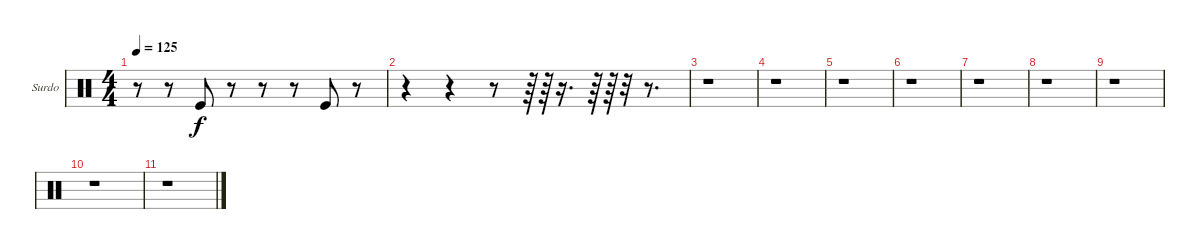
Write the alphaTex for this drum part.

\bracketExtendMode groupsimilarinstruments
\firstSystemTrackNameOrientation horizontal
\otherSystemsTrackNameOrientation horizontal
\track ("Surdo" "Surdo") {instrument percussion}
\staff {score}
\articulation defaults
\ts (4 4)
\tempo 125
\clef neutral
\ks c
r.8{dy f} r.8 "Kick (hit)".8 r.8 r.8 r.8 "Kick (hit)".8 r.8 |
r.4 r.4 r.8 r.64 r.64 r.16{d} r.64 r.64 r.32 r.8{d} |
r.1 |
r.1 |
r.1 |
r.1 |
r.1 |
r.1 |
r.1 |
r.1 |
r.1
